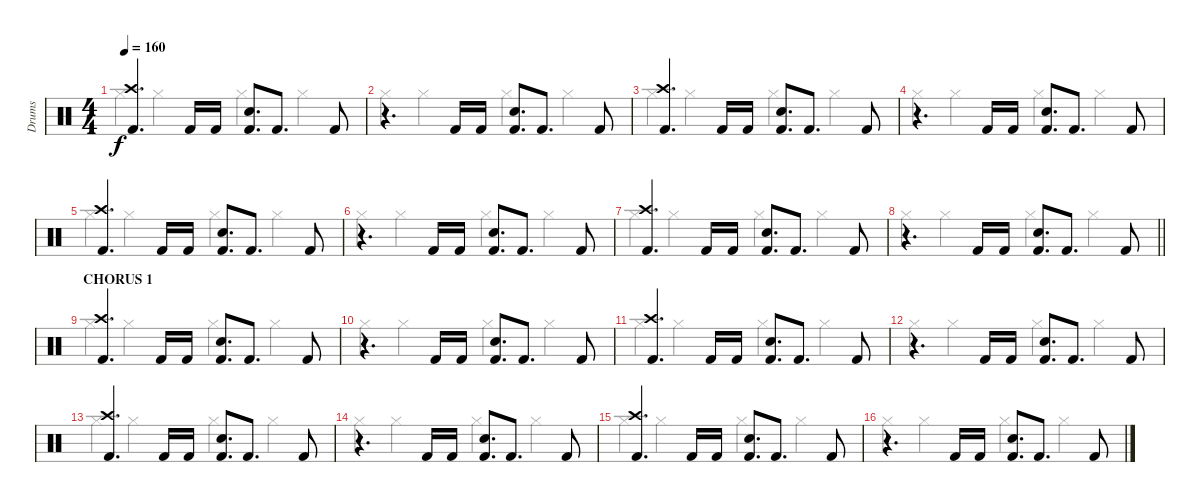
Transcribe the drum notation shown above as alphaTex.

\track ("Drums" "Drums") {instrument percussion}
\staff {score}
\articulation defaults
\voice
\ts (4 4)
\tempo 160
\clef neutral
\ks c
("Crash high (hit)" "Kick (hit) 2").4{d dy f} "Kick (hit) 2".16 "Kick (hit) 2".16 ("Snare (hit) 2" "Kick (hit) 2").8{d} "Kick (hit) 2".8{d} "Kick (hit) 2".8 |
r.4{d} "Kick (hit) 2".16 "Kick (hit) 2".16 ("Snare (hit) 2" "Kick (hit) 2").8{d} "Kick (hit) 2".8{d} "Kick (hit) 2".8 |
("Crash high (hit)" "Kick (hit) 2").4{d} "Kick (hit) 2".16 "Kick (hit) 2".16 ("Snare (hit) 2" "Kick (hit) 2").8{d} "Kick (hit) 2".8{d} "Kick (hit) 2".8 |
r.4{d} "Kick (hit) 2".16 "Kick (hit) 2".16 ("Snare (hit) 2" "Kick (hit) 2").8{d} "Kick (hit) 2".8{d} "Kick (hit) 2".8 |
("Crash high (hit)" "Kick (hit) 2").4{d} "Kick (hit) 2".16 "Kick (hit) 2".16 ("Snare (hit) 2" "Kick (hit) 2").8{d} "Kick (hit) 2".8{d} "Kick (hit) 2".8 |
r.4{d} "Kick (hit) 2".16 "Kick (hit) 2".16 ("Snare (hit) 2" "Kick (hit) 2").8{d} "Kick (hit) 2".8{d} "Kick (hit) 2".8 |
("Crash high (hit)" "Kick (hit) 2").4{d} "Kick (hit) 2".16 "Kick (hit) 2".16 ("Snare (hit) 2" "Kick (hit) 2").8{d} "Kick (hit) 2".8{d} "Kick (hit) 2".8 |
\barLineRight lightlight
r.4{d} "Kick (hit) 2".16 "Kick (hit) 2".16 ("Snare (hit) 2" "Kick (hit) 2").8{d} "Kick (hit) 2".8{d} "Kick (hit) 2".8 |
\section ("" "CHORUS 1")
("Crash high (hit)" "Kick (hit) 2").4{d} "Kick (hit) 2".16 "Kick (hit) 2".16 ("Snare (hit) 2" "Kick (hit) 2").8{d} "Kick (hit) 2".8{d} "Kick (hit) 2".8 |
r.4{d} "Kick (hit) 2".16 "Kick (hit) 2".16 ("Snare (hit) 2" "Kick (hit) 2").8{d} "Kick (hit) 2".8{d} "Kick (hit) 2".8 |
("Crash high (hit)" "Kick (hit) 2").4{d} "Kick (hit) 2".16 "Kick (hit) 2".16 ("Snare (hit) 2" "Kick (hit) 2").8{d} "Kick (hit) 2".8{d} "Kick (hit) 2".8 |
r.4{d} "Kick (hit) 2".16 "Kick (hit) 2".16 ("Snare (hit) 2" "Kick (hit) 2").8{d} "Kick (hit) 2".8{d} "Kick (hit) 2".8 |
("Crash high (hit)" "Kick (hit) 2").4{d} "Kick (hit) 2".16 "Kick (hit) 2".16 ("Snare (hit) 2" "Kick (hit) 2").8{d} "Kick (hit) 2".8{d} "Kick (hit) 2".8 |
r.4{d} "Kick (hit) 2".16 "Kick (hit) 2".16 ("Snare (hit) 2" "Kick (hit) 2").8{d} "Kick (hit) 2".8{d} "Kick (hit) 2".8 |
("Crash high (hit)" "Kick (hit) 2").4{d} "Kick (hit) 2".16 "Kick (hit) 2".16 ("Snare (hit) 2" "Kick (hit) 2").8{d} "Kick (hit) 2".8{d} "Kick (hit) 2".8 |
r.4{d} "Kick (hit) 2".16 "Kick (hit) 2".16 ("Snare (hit) 2" "Kick (hit) 2").8{d} "Kick (hit) 2".8{d} "Kick (hit) 2".8
\voice
\clef neutral
\ottava regular
\simile none
\ks c "Hi-Hat (closed)".4{dy f} "Hi-Hat (closed)".4 "Hi-Hat (closed)".4 "Hi-Hat (closed)".4
|
"Hi-Hat (closed)".4 "Hi-Hat (closed)".4 "Hi-Hat (closed)".4 "Hi-Hat (closed)".4 |
"Hi-Hat (closed)".4 "Hi-Hat (closed)".4 "Hi-Hat (closed)".4 "Hi-Hat (closed)".4 |
"Hi-Hat (closed)".4 "Hi-Hat (closed)".4 "Hi-Hat (closed)".4 "Hi-Hat (closed)".4 |
"Hi-Hat (closed)".4 "Hi-Hat (closed)".4 "Hi-Hat (closed)".4 "Hi-Hat (closed)".4 |
"Hi-Hat (closed)".4 "Hi-Hat (closed)".4 "Hi-Hat (closed)".4 "Hi-Hat (closed)".4 |
"Hi-Hat (closed)".4 "Hi-Hat (closed)".4 "Hi-Hat (closed)".4 "Hi-Hat (closed)".4 |
\barLineRight lightlight "Hi-Hat (closed)".4 "Hi-Hat (closed)".4 "Hi-Hat (closed)".4 "Hi-Hat (closed)".4
|
"Hi-Hat (closed)".4 "Hi-Hat (closed)".4 "Hi-Hat (closed)".4 "Hi-Hat (closed)".4 |
"Hi-Hat (closed)".4 "Hi-Hat (closed)".4 "Hi-Hat (closed)".4 "Hi-Hat (closed)".4 |
"Hi-Hat (closed)".4 "Hi-Hat (closed)".4 "Hi-Hat (closed)".4 "Hi-Hat (closed)".4 |
"Hi-Hat (closed)".4 "Hi-Hat (closed)".4 "Hi-Hat (closed)".4 "Hi-Hat (closed)".4 |
"Hi-Hat (closed)".4 "Hi-Hat (closed)".4 "Hi-Hat (closed)".4 "Hi-Hat (closed)".4 |
"Hi-Hat (closed)".4 "Hi-Hat (closed)".4 "Hi-Hat (closed)".4 "Hi-Hat (closed)".4 |
"Hi-Hat (closed)".4 "Hi-Hat (closed)".4 "Hi-Hat (closed)".4 "Hi-Hat (closed)".4 |
"Hi-Hat (closed)".4 "Hi-Hat (closed)".4 "Hi-Hat (closed)".4 "Hi-Hat (closed)".4
